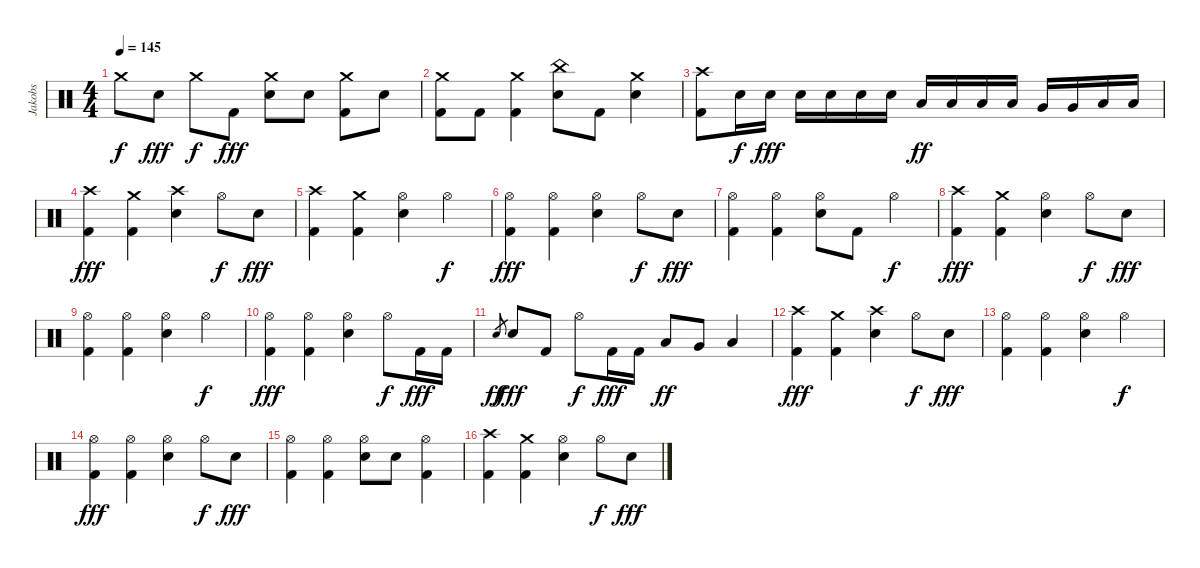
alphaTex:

\track ("Jakobs" "Jakobs") {instrument percussion}
\staff {score}
\articulation defaults
\ts (4 4)
\tempo 145
\clef neutral
\ks c "Crash medium (hit)".8{dy f} "Snare (hit) 2".8{dy fff} "Crash medium (hit)".8{dy f} "Kick (hit) 2".8{dy fff}
("Crash medium (hit)" "Snare (hit) 2").8 "Snare (hit) 2".8 ("Crash medium (hit)" "Kick (hit) 2").8 "Snare (hit) 2".8 |
("Crash medium (hit)" "Kick (hit) 2").8 "Kick (hit) 2".8 ("Crash medium (hit)" "Kick (hit) 2").4 ("China (hit)" "Snare (hit) 2").8 "Kick (hit) 2".8 ("Crash medium (hit)" "Snare (hit) 2").4 |
("Crash high (hit)" "Kick (hit) 2").8 "Snare (hit) 2".16{dy f} "Snare (hit) 2".16{dy fff} "Snare (hit) 2".16 "Snare (hit) 2".16 "Snare (hit) 2".16 "Snare (hit) 2".16 "Low Tom (hit)".16{dy ff} "Low Tom (hit)".16 "Low Tom (hit)".16 "Low Tom (hit)".16 "Very Low Tom (hit)".16 "Very Low Tom (hit)".16 "Low Floor Tom (hit)".16 "Low Floor Tom (hit)".16 |
("Crash high (hit)" "Kick (hit) 2").4{dy fff} ("Crash medium (hit)" "Kick (hit) 2").4 ("Crash high (hit)" "Snare (hit) 2").4 "Hi-Hat (open)".8{dy f} "Snare (hit) 2".8{dy fff} |
("Crash high (hit)" "Kick (hit) 2").4 ("Crash medium (hit)" "Kick (hit) 2").4 ("Hi-Hat (open)" "Snare (hit) 2").4 "Hi-Hat (open)".4{dy f} |
("Hi-Hat (open)" "Kick (hit) 2").4{dy fff} ("Hi-Hat (open)" "Kick (hit) 2").4 ("Hi-Hat (open)" "Snare (hit) 2").4 "Hi-Hat (open)".8{dy f} "Snare (hit) 2".8{dy fff} |
("Hi-Hat (open)" "Kick (hit) 2").4 ("Hi-Hat (open)" "Kick (hit) 2").4 ("Hi-Hat (open)" "Snare (hit) 2").8 "Kick (hit) 2".8 "Hi-Hat (open)".4{dy f} |
("Crash high (hit)" "Kick (hit) 2").4{dy fff} ("Crash medium (hit)" "Kick (hit) 2").4 ("Hi-Hat (open)" "Snare (hit) 2").4 "Hi-Hat (open)".8{dy f} "Snare (hit) 2".8{dy fff} |
("Hi-Hat (open)" "Kick (hit) 2").4 ("Hi-Hat (open)" "Kick (hit) 2").4 ("Hi-Hat (open)" "Snare (hit) 2").4 "Hi-Hat (open)".4{dy f} |
("Hi-Hat (open)" "Kick (hit) 2").4{dy fff} ("Hi-Hat (open)" "Kick (hit) 2").4 ("Hi-Hat (open)" "Snare (hit) 2").4 "Hi-Hat (open)".8{dy f} "Kick (hit) 2".16{dy fff} "Kick (hit) 2".16 |
"Snare (hit) 2".8{gr dy ff} "Snare (hit) 2".8{dy fff} "Kick (hit) 2".8 "Hi-Hat (open)".8{dy f} "Kick (hit) 2".16{dy fff} "Kick (hit) 2".16 "Low Tom (hit)".8{dy ff} "Very Low Tom (hit)".8 "Low Floor Tom (hit)".4 |
("Crash high (hit)" "Kick (hit) 2").4{dy fff} ("Crash medium (hit)" "Kick (hit) 2").4 ("Crash high (hit)" "Snare (hit) 2").4 "Hi-Hat (open)".8{dy f} "Snare (hit) 2".8{dy fff} |
("Hi-Hat (open)" "Kick (hit) 2").4 ("Hi-Hat (open)" "Kick (hit) 2").4 ("Hi-Hat (open)" "Snare (hit) 2").4 "Hi-Hat (open)".4{dy f} |
("Hi-Hat (open)" "Kick (hit) 2").4{dy fff} ("Hi-Hat (open)" "Kick (hit) 2").4 ("Hi-Hat (open)" "Snare (hit) 2").4 "Hi-Hat (open)".8{dy f} "Snare (hit) 2".8{dy fff} |
("Hi-Hat (open)" "Kick (hit) 2").4 ("Hi-Hat (open)" "Kick (hit) 2").4 ("Hi-Hat (open)" "Snare (hit) 2").8 "Snare (hit) 2".8 ("Hi-Hat (open)" "Kick (hit) 2").4 |
("Crash high (hit)" "Kick (hit) 2").4 ("Crash medium (hit)" "Kick (hit) 2").4 ("Hi-Hat (open)" "Snare (hit) 2").4 "Hi-Hat (open)".8{dy f} "Snare (hit) 2".8{dy fff}
